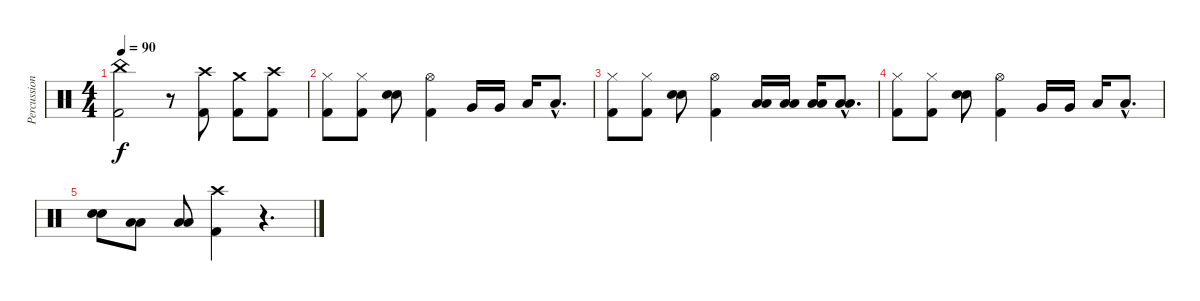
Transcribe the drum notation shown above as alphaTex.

\track ("Percussions" "Percussion") {instrument percussion}
\staff {score}
\articulation defaults
\ts (4 4)
\tempo 90
\clef neutral
\ks c
("China (hit)" "Kick (hit) 2").2{dy f} r.8 ("Crash high (hit)" "Kick (hit) 2").8 ("Crash medium (hit)" "Kick (hit) 2").8 ("Crash high (hit)" "Kick (hit) 2").8 |
("Hi-Hat (closed)" "Kick (hit) 2").8 ("Hi-Hat (closed)" "Kick (hit) 2").8 ("Snare (hit) 2" "Snare (hit) 2").8{bd 120} ("Hi-Hat (open)" "Kick (hit) 2").4 "Very Low Tom (hit)".16 "Very Low Tom (hit)".16 "Low Floor Tom (hit)".16 "Low Floor Tom (hit)"{hac}.8{d} |
("Hi-Hat (closed)" "Kick (hit) 2").8 ("Hi-Hat (closed)" "Kick (hit) 2").8 ("Snare (hit) 2" "Snare (hit) 2").8 ("Hi-Hat (open)" "Kick (hit) 2").4 ("Low Floor Tom (hit)" "Low Floor Tom (hit)").16 ("Low Floor Tom (hit)" "Low Floor Tom (hit)").16 ("Low Floor Tom (hit)" "Low Floor Tom (hit)").16 ("Low Floor Tom (hit)"{hac} "Low Floor Tom (hit)"{hac}).8{d} |
("Hi-Hat (closed)" "Kick (hit) 2").8 ("Hi-Hat (closed)" "Kick (hit) 2").8 ("Snare (hit) 2" "Snare (hit) 2").8{bd 120} ("Hi-Hat (open)" "Kick (hit) 2").4 "Very Low Tom (hit)".16 "Very Low Tom (hit)".16 "Low Floor Tom (hit)".16 "Low Floor Tom (hit)"{hac}.8{d} |
("Snare (hit) 2" "Snare (hit) 2").8{bd 120} ("Low Tom (hit)" "Low Tom (hit)").8 ("Low Floor Tom (hit)" "Low Floor Tom (hit)").8 ("Crash high (hit)" "Kick (hit) 2").4 r.4{d}
